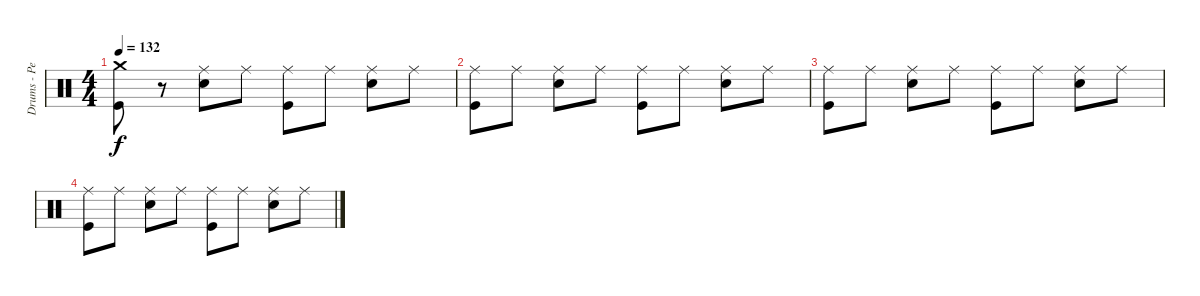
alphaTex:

\track ("Drums - Pete Gill" "Drums - Pe") {instrument percussion}
\staff {score}
\articulation defaults
\ts (4 4)
\tempo 132
\clef neutral
\ks c
("Crash medium (hit)" "Kick (hit)").8{dy f} r.8 ("Ride (middle)" "Snare (hit) 2").8 "Ride (middle)".8 ("Ride (middle)" "Kick (hit)").8 "Ride (middle)".8 ("Ride (middle)" "Snare (hit) 2").8 "Ride (middle)".8 |
("Ride (middle)" "Kick (hit)").8 "Ride (middle)".8 ("Ride (middle)" "Snare (hit) 2").8 "Ride (middle)".8 ("Ride (middle)" "Kick (hit)").8 "Ride (middle)".8 ("Ride (middle)" "Snare (hit) 2").8 "Ride (middle)".8 |
("Ride (middle)" "Kick (hit)").8 "Ride (middle)".8 ("Ride (middle)" "Snare (hit) 2").8 "Ride (middle)".8 ("Ride (middle)" "Kick (hit)").8 "Ride (middle)".8 ("Ride (middle)" "Snare (hit) 2").8 "Ride (middle)".8 |
("Ride (middle)" "Kick (hit)").8 "Ride (middle)".8 ("Ride (middle)" "Snare (hit) 2").8 "Ride (middle)".8 ("Ride (middle)" "Kick (hit)").8 "Ride (middle)".8 ("Ride (middle)" "Snare (hit) 2").8 "Ride (middle)".8
